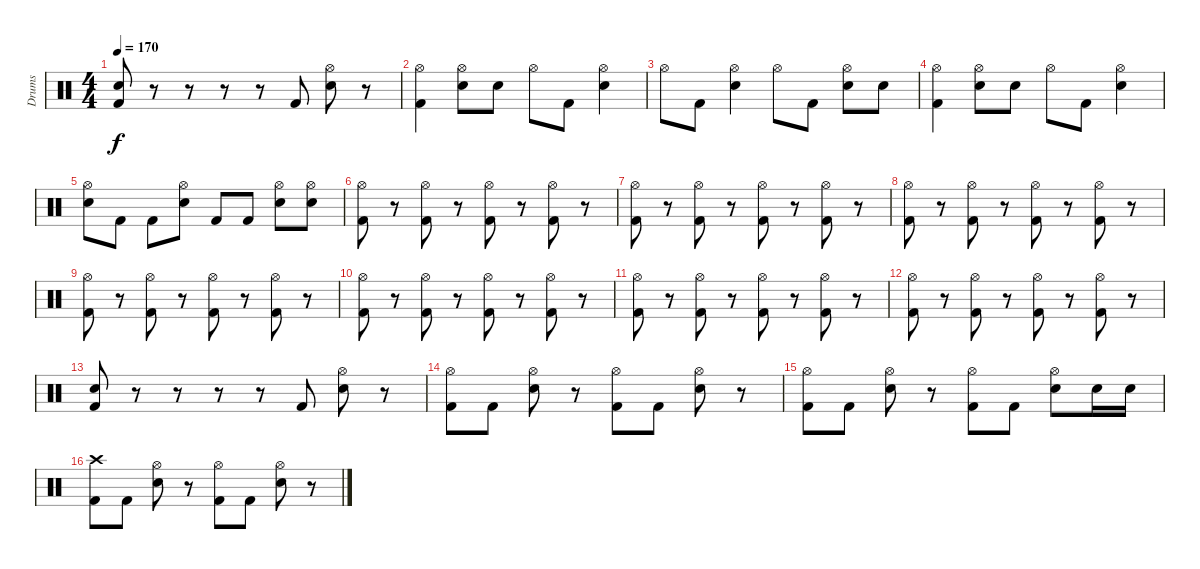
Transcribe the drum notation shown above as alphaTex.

\track ("Drums" "Drums") {instrument percussion}
\staff {score}
\articulation defaults
\ts (4 4)
\tempo 170
\clef neutral
\ks c
("Electric Snare (hit)" "Kick (hit) 2").8{dy f} r.8 r.8 r.8 r.8 "Kick (hit) 2".8 ("Hi-Hat (open)" "Electric Snare (hit)").8 r.8 |
("Hi-Hat (open)" "Kick (hit) 2").4 ("Hi-Hat (open)" "Electric Snare (hit)").8 "Electric Snare (hit)".8 "Hi-Hat (open)".8 "Kick (hit) 2".8 ("Hi-Hat (open)" "Electric Snare (hit)").4 |
"Hi-Hat (open)".8 "Kick (hit) 2".8 ("Hi-Hat (open)" "Electric Snare (hit)").4 "Hi-Hat (open)".8 "Kick (hit) 2".8 ("Hi-Hat (open)" "Electric Snare (hit)").8 "Electric Snare (hit)".8 |
("Hi-Hat (open)" "Kick (hit) 2").4 ("Hi-Hat (open)" "Electric Snare (hit)").8 "Electric Snare (hit)".8 "Hi-Hat (open)".8 "Kick (hit) 2".8 ("Hi-Hat (open)" "Electric Snare (hit)").4 |
("Hi-Hat (open)" "Electric Snare (hit)").8 "Kick (hit) 2".8 "Kick (hit) 2".8 ("Hi-Hat (open)" "Electric Snare (hit)").8 "Kick (hit) 2".8 "Kick (hit) 2".8 ("Hi-Hat (open)" "Electric Snare (hit)").8 ("Hi-Hat (open)" "Electric Snare (hit)").8 |
("Hi-Hat (open)" "Kick (hit) 2").8 r.8 ("Hi-Hat (open)" "Kick (hit) 2").8 r.8 ("Hi-Hat (open)" "Kick (hit) 2").8 r.8 ("Hi-Hat (open)" "Kick (hit) 2").8 r.8 |
("Hi-Hat (open)" "Kick (hit) 2").8 r.8 ("Hi-Hat (open)" "Kick (hit) 2").8 r.8 ("Hi-Hat (open)" "Kick (hit) 2").8 r.8 ("Hi-Hat (open)" "Kick (hit) 2").8 r.8 |
("Hi-Hat (open)" "Kick (hit) 2").8 r.8 ("Hi-Hat (open)" "Kick (hit) 2").8 r.8 ("Hi-Hat (open)" "Kick (hit) 2").8 r.8 ("Hi-Hat (open)" "Kick (hit) 2").8 r.8 |
("Hi-Hat (open)" "Kick (hit) 2").8 r.8 ("Hi-Hat (open)" "Kick (hit) 2").8 r.8 ("Hi-Hat (open)" "Kick (hit) 2").8 r.8 ("Hi-Hat (open)" "Kick (hit) 2").8 r.8 |
("Hi-Hat (open)" "Kick (hit) 2").8 r.8 ("Hi-Hat (open)" "Kick (hit) 2").8 r.8 ("Hi-Hat (open)" "Kick (hit) 2").8 r.8 ("Hi-Hat (open)" "Kick (hit) 2").8 r.8 |
("Hi-Hat (open)" "Kick (hit) 2").8 r.8 ("Hi-Hat (open)" "Kick (hit) 2").8 r.8 ("Hi-Hat (open)" "Kick (hit) 2").8 r.8 ("Hi-Hat (open)" "Kick (hit) 2").8 r.8 |
("Hi-Hat (open)" "Kick (hit) 2").8 r.8 ("Hi-Hat (open)" "Kick (hit) 2").8 r.8 ("Hi-Hat (open)" "Kick (hit) 2").8 r.8 ("Hi-Hat (open)" "Kick (hit) 2").8 r.8 |
("Electric Snare (hit)" "Kick (hit) 2").8 r.8 r.8 r.8 r.8 "Kick (hit) 2".8 ("Hi-Hat (open)" "Electric Snare (hit)").8 r.8 |
("Hi-Hat (open)" "Kick (hit) 2").8 "Kick (hit) 2".8 ("Hi-Hat (open)" "Electric Snare (hit)").8 r.8 ("Hi-Hat (open)" "Kick (hit) 2").8 "Kick (hit) 2".8 ("Hi-Hat (open)" "Electric Snare (hit)").8 r.8 |
("Hi-Hat (open)" "Kick (hit) 2").8 "Kick (hit) 2".8 ("Hi-Hat (open)" "Electric Snare (hit)").8 r.8 ("Hi-Hat (open)" "Kick (hit) 2").8 "Kick (hit) 2".8 ("Hi-Hat (open)" "Electric Snare (hit)").8 "Electric Snare (hit)".16 "Electric Snare (hit)".16 |
("Crash high (hit)" "Kick (hit) 2").8 "Kick (hit) 2".8 ("Hi-Hat (open)" "Electric Snare (hit)").8 r.8 ("Hi-Hat (open)" "Kick (hit) 2").8 "Kick (hit) 2".8 ("Hi-Hat (open)" "Electric Snare (hit)").8 r.8
